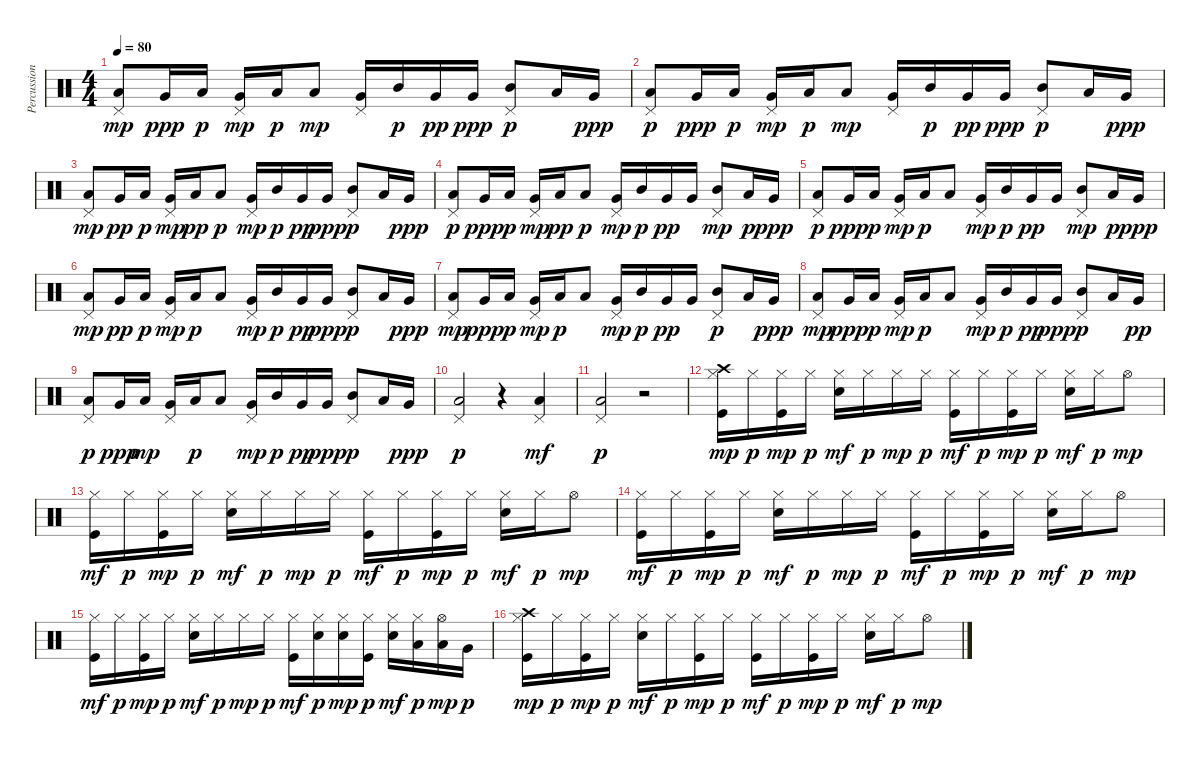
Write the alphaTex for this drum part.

\track ("Percussioni" "Percussion") {instrument percussion}
\staff {score}
\articulation defaults
\ts (4 4)
\tempo 80
\clef neutral
\ks c
("Pedal Hi-Hat (hit)" "Low Tom (hit)").8{dy mp} "Very Low Tom (hit)".16{dy ppp} "Low Tom (hit)".16{dy p} ("Very Low Tom (hit)" "Pedal Hi-Hat (hit)").16{dy mp} "Low Tom (hit)".16{dy p} "Low Tom (hit)".8{dy mp} ("Very Low Tom (hit)" "Pedal Hi-Hat (hit)").16 "Mid Tom (hit)".16{dy p} "Very Low Tom (hit)".16{dy pp} "Very Low Tom (hit)".16{dy ppp} ("Pedal Hi-Hat (hit)" "Mid Tom (hit)").8{dy p} "Low Tom (hit)".16 "Very Low Tom (hit)".16{dy ppp} |
("Pedal Hi-Hat (hit)" "Low Tom (hit)").8{dy p} "Very Low Tom (hit)".16{dy ppp} "Low Tom (hit)".16{dy p} ("Very Low Tom (hit)" "Pedal Hi-Hat (hit)").16{dy mp} "Low Tom (hit)".16{dy p} "Low Tom (hit)".8{dy mp} ("Very Low Tom (hit)" "Pedal Hi-Hat (hit)").16 "Mid Tom (hit)".16{dy p} "Very Low Tom (hit)".16{dy pp} "Very Low Tom (hit)".16{dy ppp} ("Pedal Hi-Hat (hit)" "Mid Tom (hit)").8{dy p} "Low Tom (hit)".16 "Very Low Tom (hit)".16{dy ppp} |
("Pedal Hi-Hat (hit)" "Low Tom (hit)").8{dy mp} "Very Low Tom (hit)".16{dy pp} "Low Tom (hit)".16{dy p} ("Very Low Tom (hit)" "Pedal Hi-Hat (hit)").16{dy mp} "Low Tom (hit)".16{dy pp} "Low Tom (hit)".8{dy p} ("Very Low Tom (hit)" "Pedal Hi-Hat (hit)").16{dy mp} "Mid Tom (hit)".16{dy p} "Very Low Tom (hit)".16{dy pp} "Very Low Tom (hit)".16{dy ppp} ("Pedal Hi-Hat (hit)" "Mid Tom (hit)").8{dy p} "Low Tom (hit)".16 "Very Low Tom (hit)".16{dy ppp} |
("Pedal Hi-Hat (hit)" "Low Tom (hit)").8{dy p} "Very Low Tom (hit)".16{dy ppp} "Low Tom (hit)".16{dy p} ("Very Low Tom (hit)" "Pedal Hi-Hat (hit)").16{dy mp} "Low Tom (hit)".16{dy pp} "Low Tom (hit)".8{dy p} ("Very Low Tom (hit)" "Pedal Hi-Hat (hit)").16{dy mp} "Mid Tom (hit)".16{dy p} "Very Low Tom (hit)".16{dy pp} "Very Low Tom (hit)".16 ("Pedal Hi-Hat (hit)" "Mid Tom (hit)").8{dy mp} "Low Tom (hit)".16{dy p} "Very Low Tom (hit)".16{dy ppp} |
("Pedal Hi-Hat (hit)" "Low Tom (hit)").8{dy p} "Very Low Tom (hit)".16{dy ppp} "Low Tom (hit)".16{dy p} ("Very Low Tom (hit)" "Pedal Hi-Hat (hit)").16{dy mp} "Low Tom (hit)".16{dy p} "Low Tom (hit)".8 ("Very Low Tom (hit)" "Pedal Hi-Hat (hit)").16{dy mp} "Mid Tom (hit)".16{dy p} "Very Low Tom (hit)".16{dy pp} "Very Low Tom (hit)".16 ("Pedal Hi-Hat (hit)" "Mid Tom (hit)").8{dy mp} "Low Tom (hit)".16{dy p} "Very Low Tom (hit)".16{dy ppp} |
("Pedal Hi-Hat (hit)" "Low Tom (hit)").8{dy mp} "Very Low Tom (hit)".16{dy pp} "Low Tom (hit)".16{dy p} ("Very Low Tom (hit)" "Pedal Hi-Hat (hit)").16{dy mp} "Low Tom (hit)".16{dy p} "Low Tom (hit)".8 ("Very Low Tom (hit)" "Pedal Hi-Hat (hit)").16{dy mp} "Mid Tom (hit)".16{dy p} "Very Low Tom (hit)".16{dy pp} "Very Low Tom (hit)".16{dy ppp} ("Pedal Hi-Hat (hit)" "Mid Tom (hit)").8{dy p} "Low Tom (hit)".16 "Very Low Tom (hit)".16{dy ppp} |
("Pedal Hi-Hat (hit)" "Low Tom (hit)").8{dy mp} "Very Low Tom (hit)".16{dy ppp} "Low Tom (hit)".16{dy p} ("Very Low Tom (hit)" "Pedal Hi-Hat (hit)").16{dy mp} "Low Tom (hit)".16{dy p} "Low Tom (hit)".8 ("Very Low Tom (hit)" "Pedal Hi-Hat (hit)").16{dy mp} "Mid Tom (hit)".16{dy p} "Very Low Tom (hit)".16{dy pp} "Very Low Tom (hit)".16 ("Pedal Hi-Hat (hit)" "Mid Tom (hit)").8{dy p} "Low Tom (hit)".16 "Very Low Tom (hit)".16{dy ppp} |
("Pedal Hi-Hat (hit)" "Low Tom (hit)").8{dy mp} "Very Low Tom (hit)".16{dy ppp} "Low Tom (hit)".16{dy p} ("Very Low Tom (hit)" "Pedal Hi-Hat (hit)").16{dy mp} "Low Tom (hit)".16{dy p} "Low Tom (hit)".8 ("Very Low Tom (hit)" "Pedal Hi-Hat (hit)").16{dy mp} "Mid Tom (hit)".16{dy p} "Very Low Tom (hit)".16{dy pp} "Very Low Tom (hit)".16{dy ppp} ("Pedal Hi-Hat (hit)" "Mid Tom (hit)").8{dy p} "Low Tom (hit)".16 "Very Low Tom (hit)".16{dy pp} |
("Pedal Hi-Hat (hit)" "Low Tom (hit)").8{dy p} "Very Low Tom (hit)".16{dy ppp} "Low Tom (hit)".16{dy mp} ("Very Low Tom (hit)" "Pedal Hi-Hat (hit)").16 "Low Tom (hit)".16{dy p} "Low Tom (hit)".8 ("Very Low Tom (hit)" "Pedal Hi-Hat (hit)").16{dy mp} "Mid Tom (hit)".16{dy p} "Very Low Tom (hit)".16{dy pp} "Very Low Tom (hit)".16{dy ppp} ("Pedal Hi-Hat (hit)" "Mid Tom (hit)").8{dy p} "Low Tom (hit)".16 "Very Low Tom (hit)".16{dy ppp} |
("Pedal Hi-Hat (hit)" "Low Tom (hit)").2{dy p} r.4 ("Pedal Hi-Hat (hit)" "Low Tom (hit)").4{dy mf} |
("Pedal Hi-Hat (hit)" "Low Tom (hit)").2{dy p} r.2 |
("Kick (hit)" "Hi-Hat (closed)" "Crash high (hit)").16{dy mp} "Hi-Hat (closed)".16{dy p} ("Kick (hit)" "Hi-Hat (closed)").16{dy mp} "Hi-Hat (closed)".16{dy p} ("Snare (hit) 2" "Hi-Hat (closed)").16{dy mf} "Hi-Hat (closed)".16{dy p} "Hi-Hat (closed)".16{dy mp} "Hi-Hat (closed)".16{dy p} ("Kick (hit)" "Hi-Hat (closed)").16{dy mf} "Hi-Hat (closed)".16{dy p} ("Kick (hit)" "Hi-Hat (closed)").16{dy mp} "Hi-Hat (closed)".16{dy p} ("Snare (hit) 2" "Hi-Hat (closed)").16{dy mf} "Hi-Hat (closed)".16{dy p} "Hi-Hat (open)".8{dy mp} |
("Kick (hit)" "Hi-Hat (closed)").16{dy mf} "Hi-Hat (closed)".16{dy p} ("Kick (hit)" "Hi-Hat (closed)").16{dy mp} "Hi-Hat (closed)".16{dy p} ("Snare (hit) 2" "Hi-Hat (closed)").16{dy mf} "Hi-Hat (closed)".16{dy p} "Hi-Hat (closed)".16{dy mp} "Hi-Hat (closed)".16{dy p} ("Kick (hit)" "Hi-Hat (closed)").16{dy mf} "Hi-Hat (closed)".16{dy p} ("Kick (hit)" "Hi-Hat (closed)").16{dy mp} "Hi-Hat (closed)".16{dy p} ("Snare (hit) 2" "Hi-Hat (closed)").16{dy mf} "Hi-Hat (closed)".16{dy p} "Hi-Hat (open)".8{dy mp} |
("Kick (hit)" "Hi-Hat (closed)").16{dy mf} "Hi-Hat (closed)".16{dy p} ("Kick (hit)" "Hi-Hat (closed)").16{dy mp} "Hi-Hat (closed)".16{dy p} ("Snare (hit) 2" "Hi-Hat (closed)").16{dy mf} "Hi-Hat (closed)".16{dy p} "Hi-Hat (closed)".16{dy mp} "Hi-Hat (closed)".16{dy p} ("Kick (hit)" "Hi-Hat (closed)").16{dy mf} "Hi-Hat (closed)".16{dy p} ("Kick (hit)" "Hi-Hat (closed)").16{dy mp} "Hi-Hat (closed)".16{dy p} ("Snare (hit) 2" "Hi-Hat (closed)").16{dy mf} "Hi-Hat (closed)".16{dy p} "Hi-Hat (open)".8{dy mp} |
("Kick (hit)" "Hi-Hat (closed)").16{dy mf} "Hi-Hat (closed)".16{dy p} ("Kick (hit)" "Hi-Hat (closed)").16{dy mp} "Hi-Hat (closed)".16{dy p} ("Snare (hit) 2" "Hi-Hat (closed)").16{dy mf} "Hi-Hat (closed)".16{dy p} "Hi-Hat (closed)".16{dy mp} "Hi-Hat (closed)".16{dy p} ("Kick (hit)" "Hi-Hat (closed)").16{dy mf} ("Snare (hit) 2" "Hi-Hat (closed)").16{dy p} ("Snare (hit) 2" "Hi-Hat (closed)").16{dy mp} ("Kick (hit)" "Hi-Hat (closed)").16{dy p} ("Snare (hit) 2" "Hi-Hat (closed)").16{dy mf} ("Hi-Hat (closed)" "Low Tom (hit)").16{dy p} ("Low Tom (hit)" "Hi-Hat (open)").16{dy mp} "Very Low Tom (hit)".16{dy p} |
("Kick (hit)" "Hi-Hat (closed)" "Crash high (hit)").16{dy mp} "Hi-Hat (closed)".16{dy p} ("Kick (hit)" "Hi-Hat (closed)").16{dy mp} "Hi-Hat (closed)".16{dy p} ("Snare (hit) 2" "Hi-Hat (closed)").16{dy mf} "Hi-Hat (closed)".16{dy p} ("Kick (hit)" "Hi-Hat (closed)").16{dy mp} "Hi-Hat (closed)".16{dy p} ("Kick (hit)" "Hi-Hat (closed)").16{dy mf} "Hi-Hat (closed)".16{dy p} ("Kick (hit)" "Hi-Hat (closed)").16{dy mp} "Hi-Hat (closed)".16{dy p} ("Snare (hit) 2" "Hi-Hat (closed)").16{dy mf} "Hi-Hat (closed)".16{dy p} "Hi-Hat (open)".8{dy mp}
